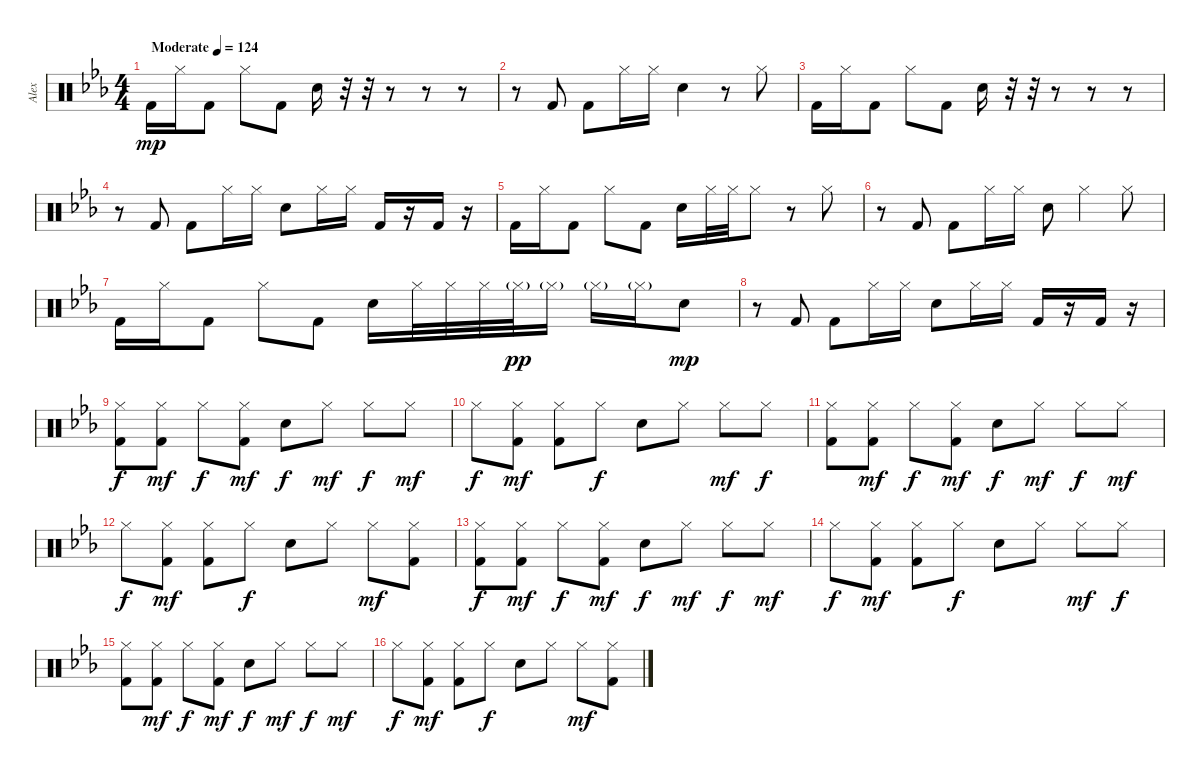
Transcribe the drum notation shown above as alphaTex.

\track ("Alex" "Alex") {instrument percussion}
\staff {score}
\articulation defaults
\ts (4 4)
\tempo (124 "Moderate")
\clef neutral
\ks cminor "Kick (hit) 2".16{dy mp} "Hi-Hat (closed)".16 "Kick (hit) 2".8 "Hi-Hat (closed)".8 "Kick (hit) 2".8 "Electric Snare (hit)".16
r.32 r.32 r.8 r.8 r.8 |
r.8 "Kick (hit) 2".8 "Kick (hit) 2".8 "Hi-Hat (closed)".16 "Hi-Hat (closed)".16 "Electric Snare (hit)".4 r.8 "Hi-Hat (closed)".8 |
"Kick (hit) 2".16 "Hi-Hat (closed)".16 "Kick (hit) 2".8 "Hi-Hat (closed)".8 "Kick (hit) 2".8 "Electric Snare (hit)".16 r.32 r.32 r.8 r.8 r.8 |
r.8 "Kick (hit) 2".8 "Kick (hit) 2".8 "Hi-Hat (closed)".16 "Hi-Hat (closed)".16 "Electric Snare (hit)".8 "Hi-Hat (closed)".16 "Hi-Hat (closed)".16 "Kick (hit) 2".16 r.16 "Kick (hit) 2".16 r.16 |
"Kick (hit) 2".16 "Hi-Hat (closed)".16 "Kick (hit) 2".8 "Hi-Hat (closed)".8 "Kick (hit) 2".8 "Electric Snare (hit)".16 "Hi-Hat (closed)".32 "Hi-Hat (closed)".32 "Hi-Hat (closed)".8 r.8 "Hi-Hat (closed)".8 |
r.8 "Kick (hit) 2".8 "Kick (hit) 2".8 "Hi-Hat (closed)".16 "Hi-Hat (closed)".16 "Electric Snare (hit)".8 "Hi-Hat (closed)".4 "Hi-Hat (closed)".8 |
"Kick (hit) 2".16 "Hi-Hat (closed)".16 "Kick (hit) 2".8 "Hi-Hat (closed)".8 "Kick (hit) 2".8 "Electric Snare (hit)".16 "Hi-Hat (closed)".32 "Hi-Hat (closed)".32 "Hi-Hat (closed)".32 "Hi-Hat (closed)"{g}.32{dy pp} "Hi-Hat (closed)"{g}.16 "Hi-Hat (closed)"{g}.16 "Hi-Hat (closed)"{g}.16 "Electric Snare (hit)".8{dy mp} |
r.8 "Kick (hit) 2".8 "Kick (hit) 2".8 "Hi-Hat (closed)".16 "Hi-Hat (closed)".16 "Electric Snare (hit)".8 "Hi-Hat (closed)".16 "Hi-Hat (closed)".16 "Kick (hit) 2".16 r.16 "Kick (hit) 2".16 r.16 |
("Hi-Hat (closed)" "Kick (hit) 2").8{dy f} ("Hi-Hat (closed)" "Kick (hit) 2").8{dy mf} "Hi-Hat (closed)".8{dy f} ("Hi-Hat (closed)" "Kick (hit) 2").8{dy mf} "Electric Snare (hit)".8{dy f} "Hi-Hat (closed)".8{dy mf} "Hi-Hat (closed)".8{dy f} "Hi-Hat (closed)".8{dy mf} |
"Hi-Hat (closed)".8{dy f} ("Hi-Hat (closed)" "Kick (hit) 2").8{dy mf} ("Hi-Hat (closed)" "Kick (hit) 2").8 "Hi-Hat (closed)".8{dy f} "Electric Snare (hit)".8 "Hi-Hat (closed)".8 "Hi-Hat (closed)".8{dy mf} "Hi-Hat (closed)".8{dy f} |
("Hi-Hat (closed)" "Kick (hit) 2").8 ("Hi-Hat (closed)" "Kick (hit) 2").8{dy mf} "Hi-Hat (closed)".8{dy f} ("Hi-Hat (closed)" "Kick (hit) 2").8{dy mf} "Electric Snare (hit)".8{dy f} "Hi-Hat (closed)".8{dy mf} "Hi-Hat (closed)".8{dy f} "Hi-Hat (closed)".8{dy mf} |
"Hi-Hat (closed)".8{dy f} ("Hi-Hat (closed)" "Kick (hit) 2").8{dy mf} ("Hi-Hat (closed)" "Kick (hit) 2").8 "Hi-Hat (closed)".8{dy f} "Electric Snare (hit)".8 "Hi-Hat (closed)".8 "Hi-Hat (closed)".8{dy mf} ("Hi-Hat (closed)" "Kick (hit) 2").8 |
("Hi-Hat (closed)" "Kick (hit) 2").8{dy f} ("Hi-Hat (closed)" "Kick (hit) 2").8{dy mf} "Hi-Hat (closed)".8{dy f} ("Hi-Hat (closed)" "Kick (hit) 2").8{dy mf} "Electric Snare (hit)".8{dy f} "Hi-Hat (closed)".8{dy mf} "Hi-Hat (closed)".8{dy f} "Hi-Hat (closed)".8{dy mf} |
"Hi-Hat (closed)".8{dy f} ("Hi-Hat (closed)" "Kick (hit) 2").8{dy mf} ("Hi-Hat (closed)" "Kick (hit) 2").8 "Hi-Hat (closed)".8{dy f} "Electric Snare (hit)".8 "Hi-Hat (closed)".8 "Hi-Hat (closed)".8{dy mf} "Hi-Hat (closed)".8{dy f} |
("Hi-Hat (closed)" "Kick (hit) 2").8 ("Hi-Hat (closed)" "Kick (hit) 2").8{dy mf} "Hi-Hat (closed)".8{dy f} ("Hi-Hat (closed)" "Kick (hit) 2").8{dy mf} "Electric Snare (hit)".8{dy f} "Hi-Hat (closed)".8{dy mf} "Hi-Hat (closed)".8{dy f} "Hi-Hat (closed)".8{dy mf} |
"Hi-Hat (closed)".8{dy f} ("Hi-Hat (closed)" "Kick (hit) 2").8{dy mf} ("Hi-Hat (closed)" "Kick (hit) 2").8 "Hi-Hat (closed)".8{dy f} "Electric Snare (hit)".8 "Hi-Hat (closed)".8 "Hi-Hat (closed)".8{dy mf} ("Hi-Hat (closed)" "Kick (hit) 2").8
